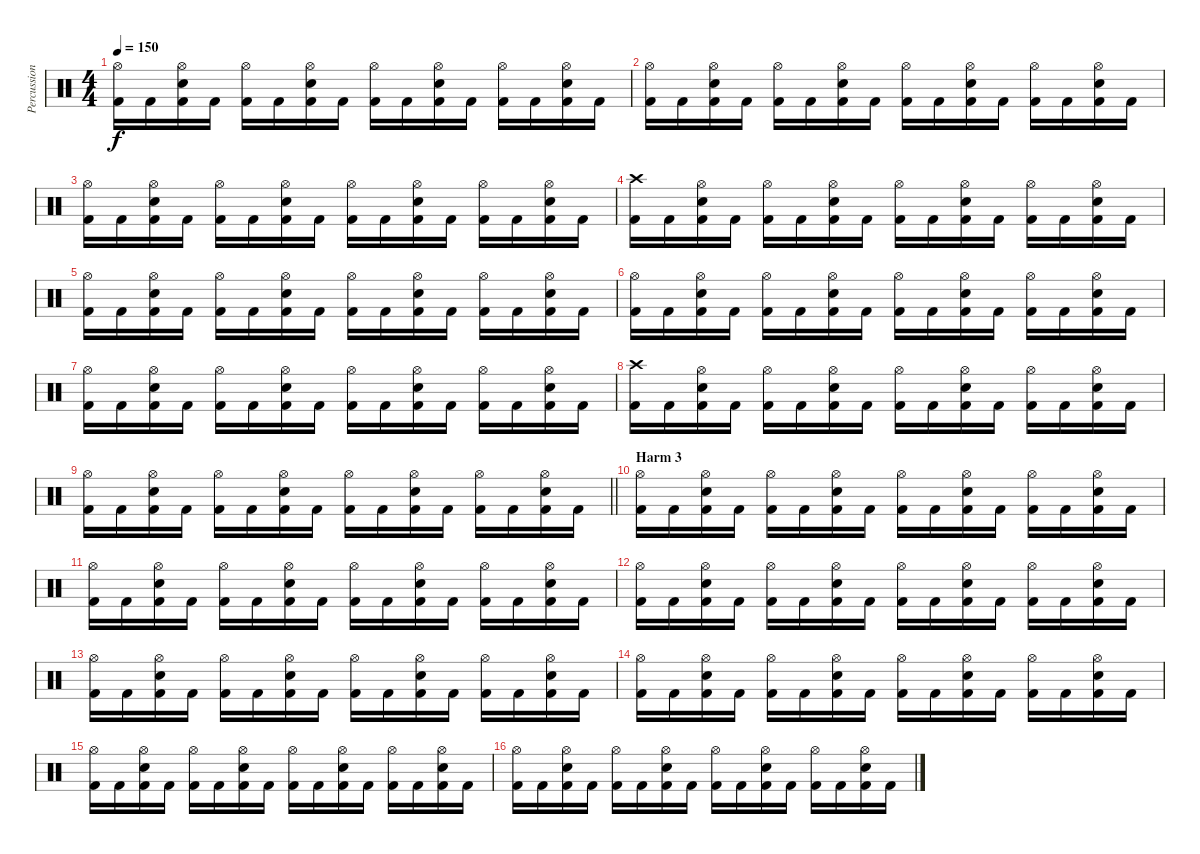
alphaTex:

\track ("Percussion" "Percussion") {instrument percussion}
\staff {score}
\articulation defaults
\ts (4 4)
\tempo 150
\clef neutral
\ks c
("Hi-Hat (open)" "Kick (hit) 2").16{dy f} "Kick (hit) 2".16 ("Hi-Hat (open)" "Snare (hit) 2" "Kick (hit) 2").16 "Kick (hit) 2".16 ("Hi-Hat (open)" "Kick (hit) 2").16 "Kick (hit) 2".16 ("Hi-Hat (open)" "Snare (hit) 2" "Kick (hit) 2").16 "Kick (hit) 2".16 ("Hi-Hat (open)" "Kick (hit) 2").16 "Kick (hit) 2".16 ("Hi-Hat (open)" "Snare (hit) 2" "Kick (hit) 2").16 "Kick (hit) 2".16 ("Hi-Hat (open)" "Kick (hit) 2").16 "Kick (hit) 2".16 ("Hi-Hat (open)" "Snare (hit) 2" "Kick (hit) 2").16 "Kick (hit) 2".16 |
("Hi-Hat (open)" "Kick (hit) 2").16 "Kick (hit) 2".16 ("Hi-Hat (open)" "Snare (hit) 2" "Kick (hit) 2").16 "Kick (hit) 2".16 ("Hi-Hat (open)" "Kick (hit) 2").16 "Kick (hit) 2".16 ("Hi-Hat (open)" "Snare (hit) 2" "Kick (hit) 2").16 "Kick (hit) 2".16 ("Hi-Hat (open)" "Kick (hit) 2").16 "Kick (hit) 2".16 ("Hi-Hat (open)" "Snare (hit) 2" "Kick (hit) 2").16 "Kick (hit) 2".16 ("Hi-Hat (open)" "Kick (hit) 2").16 "Kick (hit) 2".16 ("Hi-Hat (open)" "Snare (hit) 2" "Kick (hit) 2").16 "Kick (hit) 2".16 |
("Hi-Hat (open)" "Kick (hit) 2").16 "Kick (hit) 2".16 ("Hi-Hat (open)" "Snare (hit) 2" "Kick (hit) 2").16 "Kick (hit) 2".16 ("Hi-Hat (open)" "Kick (hit) 2").16 "Kick (hit) 2".16 ("Hi-Hat (open)" "Snare (hit) 2" "Kick (hit) 2").16 "Kick (hit) 2".16 ("Hi-Hat (open)" "Kick (hit) 2").16 "Kick (hit) 2".16 ("Hi-Hat (open)" "Snare (hit) 2" "Kick (hit) 2").16 "Kick (hit) 2".16 ("Hi-Hat (open)" "Kick (hit) 2").16 "Kick (hit) 2".16 ("Hi-Hat (open)" "Snare (hit) 2" "Kick (hit) 2").16 "Kick (hit) 2".16 |
("Crash high (hit)" "Kick (hit) 2").16 "Kick (hit) 2".16 ("Hi-Hat (open)" "Snare (hit) 2" "Kick (hit) 2").16 "Kick (hit) 2".16 ("Hi-Hat (open)" "Kick (hit) 2").16 "Kick (hit) 2".16 ("Hi-Hat (open)" "Snare (hit) 2" "Kick (hit) 2").16 "Kick (hit) 2".16 ("Hi-Hat (open)" "Kick (hit) 2").16 "Kick (hit) 2".16 ("Hi-Hat (open)" "Snare (hit) 2" "Kick (hit) 2").16 "Kick (hit) 2".16 ("Hi-Hat (open)" "Kick (hit) 2").16 "Kick (hit) 2".16 ("Hi-Hat (open)" "Snare (hit) 2" "Kick (hit) 2").16 "Kick (hit) 2".16 |
("Hi-Hat (open)" "Kick (hit) 2").16 "Kick (hit) 2".16 ("Hi-Hat (open)" "Snare (hit) 2" "Kick (hit) 2").16 "Kick (hit) 2".16 ("Hi-Hat (open)" "Kick (hit) 2").16 "Kick (hit) 2".16 ("Hi-Hat (open)" "Snare (hit) 2" "Kick (hit) 2").16 "Kick (hit) 2".16 ("Hi-Hat (open)" "Kick (hit) 2").16 "Kick (hit) 2".16 ("Hi-Hat (open)" "Snare (hit) 2" "Kick (hit) 2").16 "Kick (hit) 2".16 ("Hi-Hat (open)" "Kick (hit) 2").16 "Kick (hit) 2".16 ("Hi-Hat (open)" "Snare (hit) 2" "Kick (hit) 2").16 "Kick (hit) 2".16 |
("Hi-Hat (open)" "Kick (hit) 2").16 "Kick (hit) 2".16 ("Hi-Hat (open)" "Snare (hit) 2" "Kick (hit) 2").16 "Kick (hit) 2".16 ("Hi-Hat (open)" "Kick (hit) 2").16 "Kick (hit) 2".16 ("Hi-Hat (open)" "Snare (hit) 2" "Kick (hit) 2").16 "Kick (hit) 2".16 ("Hi-Hat (open)" "Kick (hit) 2").16 "Kick (hit) 2".16 ("Hi-Hat (open)" "Snare (hit) 2" "Kick (hit) 2").16 "Kick (hit) 2".16 ("Hi-Hat (open)" "Kick (hit) 2").16 "Kick (hit) 2".16 ("Hi-Hat (open)" "Snare (hit) 2" "Kick (hit) 2").16 "Kick (hit) 2".16 |
("Hi-Hat (open)" "Kick (hit) 2").16 "Kick (hit) 2".16 ("Hi-Hat (open)" "Snare (hit) 2" "Kick (hit) 2").16 "Kick (hit) 2".16 ("Hi-Hat (open)" "Kick (hit) 2").16 "Kick (hit) 2".16 ("Hi-Hat (open)" "Snare (hit) 2" "Kick (hit) 2").16 "Kick (hit) 2".16 ("Hi-Hat (open)" "Kick (hit) 2").16 "Kick (hit) 2".16 ("Hi-Hat (open)" "Snare (hit) 2" "Kick (hit) 2").16 "Kick (hit) 2".16 ("Hi-Hat (open)" "Kick (hit) 2").16 "Kick (hit) 2".16 ("Hi-Hat (open)" "Snare (hit) 2" "Kick (hit) 2").16 "Kick (hit) 2".16 |
("Crash high (hit)" "Kick (hit) 2").16 "Kick (hit) 2".16 ("Hi-Hat (open)" "Snare (hit) 2" "Kick (hit) 2").16 "Kick (hit) 2".16 ("Hi-Hat (open)" "Kick (hit) 2").16 "Kick (hit) 2".16 ("Hi-Hat (open)" "Snare (hit) 2" "Kick (hit) 2").16 "Kick (hit) 2".16 ("Hi-Hat (open)" "Kick (hit) 2").16 "Kick (hit) 2".16 ("Hi-Hat (open)" "Snare (hit) 2" "Kick (hit) 2").16 "Kick (hit) 2".16 ("Hi-Hat (open)" "Kick (hit) 2").16 "Kick (hit) 2".16 ("Hi-Hat (open)" "Snare (hit) 2" "Kick (hit) 2").16 "Kick (hit) 2".16 |
\barLineRight lightlight
("Hi-Hat (open)" "Kick (hit) 2").16 "Kick (hit) 2".16 ("Hi-Hat (open)" "Snare (hit) 2" "Kick (hit) 2").16 "Kick (hit) 2".16 ("Hi-Hat (open)" "Kick (hit) 2").16 "Kick (hit) 2".16 ("Hi-Hat (open)" "Snare (hit) 2" "Kick (hit) 2").16 "Kick (hit) 2".16 ("Hi-Hat (open)" "Kick (hit) 2").16 "Kick (hit) 2".16 ("Hi-Hat (open)" "Snare (hit) 2" "Kick (hit) 2").16 "Kick (hit) 2".16 ("Hi-Hat (open)" "Kick (hit) 2").16 "Kick (hit) 2".16 ("Hi-Hat (open)" "Snare (hit) 2" "Kick (hit) 2").16 "Kick (hit) 2".16 |
\section ("" "Harm 3")
("Hi-Hat (open)" "Kick (hit) 2").16 "Kick (hit) 2".16 ("Hi-Hat (open)" "Snare (hit) 2" "Kick (hit) 2").16 "Kick (hit) 2".16 ("Hi-Hat (open)" "Kick (hit) 2").16 "Kick (hit) 2".16 ("Hi-Hat (open)" "Snare (hit) 2" "Kick (hit) 2").16 "Kick (hit) 2".16 ("Hi-Hat (open)" "Kick (hit) 2").16 "Kick (hit) 2".16 ("Hi-Hat (open)" "Snare (hit) 2" "Kick (hit) 2").16 "Kick (hit) 2".16 ("Hi-Hat (open)" "Kick (hit) 2").16 "Kick (hit) 2".16 ("Hi-Hat (open)" "Snare (hit) 2" "Kick (hit) 2").16 "Kick (hit) 2".16 |
("Hi-Hat (open)" "Kick (hit) 2").16 "Kick (hit) 2".16 ("Hi-Hat (open)" "Snare (hit) 2" "Kick (hit) 2").16 "Kick (hit) 2".16 ("Hi-Hat (open)" "Kick (hit) 2").16 "Kick (hit) 2".16 ("Hi-Hat (open)" "Snare (hit) 2" "Kick (hit) 2").16 "Kick (hit) 2".16 ("Hi-Hat (open)" "Kick (hit) 2").16 "Kick (hit) 2".16 ("Hi-Hat (open)" "Snare (hit) 2" "Kick (hit) 2").16 "Kick (hit) 2".16 ("Hi-Hat (open)" "Kick (hit) 2").16 "Kick (hit) 2".16 ("Hi-Hat (open)" "Snare (hit) 2" "Kick (hit) 2").16 "Kick (hit) 2".16 |
("Hi-Hat (open)" "Kick (hit) 2").16 "Kick (hit) 2".16 ("Hi-Hat (open)" "Snare (hit) 2" "Kick (hit) 2").16 "Kick (hit) 2".16 ("Hi-Hat (open)" "Kick (hit) 2").16 "Kick (hit) 2".16 ("Hi-Hat (open)" "Snare (hit) 2" "Kick (hit) 2").16 "Kick (hit) 2".16 ("Hi-Hat (open)" "Kick (hit) 2").16 "Kick (hit) 2".16 ("Hi-Hat (open)" "Snare (hit) 2" "Kick (hit) 2").16 "Kick (hit) 2".16 ("Hi-Hat (open)" "Kick (hit) 2").16 "Kick (hit) 2".16 ("Hi-Hat (open)" "Snare (hit) 2" "Kick (hit) 2").16 "Kick (hit) 2".16 |
("Hi-Hat (open)" "Kick (hit) 2").16 "Kick (hit) 2".16 ("Hi-Hat (open)" "Snare (hit) 2" "Kick (hit) 2").16 "Kick (hit) 2".16 ("Hi-Hat (open)" "Kick (hit) 2").16 "Kick (hit) 2".16 ("Hi-Hat (open)" "Snare (hit) 2" "Kick (hit) 2").16 "Kick (hit) 2".16 ("Hi-Hat (open)" "Kick (hit) 2").16 "Kick (hit) 2".16 ("Hi-Hat (open)" "Snare (hit) 2" "Kick (hit) 2").16 "Kick (hit) 2".16 ("Hi-Hat (open)" "Kick (hit) 2").16 "Kick (hit) 2".16 ("Hi-Hat (open)" "Snare (hit) 2" "Kick (hit) 2").16 "Kick (hit) 2".16 |
("Hi-Hat (open)" "Kick (hit) 2").16 "Kick (hit) 2".16 ("Hi-Hat (open)" "Snare (hit) 2" "Kick (hit) 2").16 "Kick (hit) 2".16 ("Hi-Hat (open)" "Kick (hit) 2").16 "Kick (hit) 2".16 ("Hi-Hat (open)" "Snare (hit) 2" "Kick (hit) 2").16 "Kick (hit) 2".16 ("Hi-Hat (open)" "Kick (hit) 2").16 "Kick (hit) 2".16 ("Hi-Hat (open)" "Snare (hit) 2" "Kick (hit) 2").16 "Kick (hit) 2".16 ("Hi-Hat (open)" "Kick (hit) 2").16 "Kick (hit) 2".16 ("Hi-Hat (open)" "Snare (hit) 2" "Kick (hit) 2").16 "Kick (hit) 2".16 |
("Hi-Hat (open)" "Kick (hit) 2").16 "Kick (hit) 2".16 ("Hi-Hat (open)" "Snare (hit) 2" "Kick (hit) 2").16 "Kick (hit) 2".16 ("Hi-Hat (open)" "Kick (hit) 2").16 "Kick (hit) 2".16 ("Hi-Hat (open)" "Snare (hit) 2" "Kick (hit) 2").16 "Kick (hit) 2".16 ("Hi-Hat (open)" "Kick (hit) 2").16 "Kick (hit) 2".16 ("Hi-Hat (open)" "Snare (hit) 2" "Kick (hit) 2").16 "Kick (hit) 2".16 ("Hi-Hat (open)" "Kick (hit) 2").16 "Kick (hit) 2".16 ("Hi-Hat (open)" "Snare (hit) 2" "Kick (hit) 2").16 "Kick (hit) 2".16 |
("Hi-Hat (open)" "Kick (hit) 2").16 "Kick (hit) 2".16 ("Hi-Hat (open)" "Snare (hit) 2" "Kick (hit) 2").16 "Kick (hit) 2".16 ("Hi-Hat (open)" "Kick (hit) 2").16 "Kick (hit) 2".16 ("Hi-Hat (open)" "Snare (hit) 2" "Kick (hit) 2").16 "Kick (hit) 2".16 ("Hi-Hat (open)" "Kick (hit) 2").16 "Kick (hit) 2".16 ("Hi-Hat (open)" "Snare (hit) 2" "Kick (hit) 2").16 "Kick (hit) 2".16 ("Hi-Hat (open)" "Kick (hit) 2").16 "Kick (hit) 2".16 ("Hi-Hat (open)" "Snare (hit) 2" "Kick (hit) 2").16 "Kick (hit) 2".16
